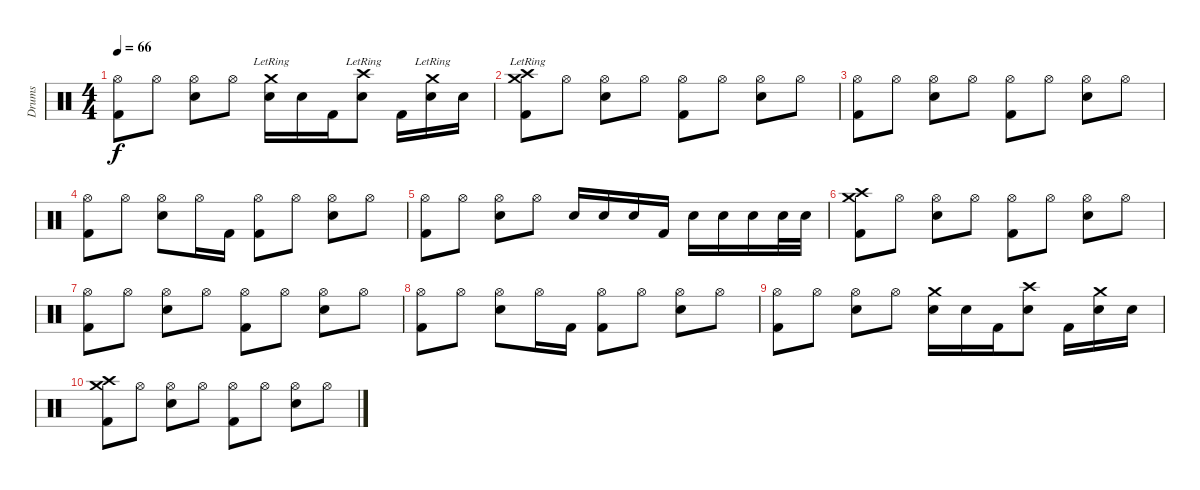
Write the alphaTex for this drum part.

\track ("Drums" "Drums") {instrument percussion}
\staff {score}
\articulation defaults
\ts (4 4)
\tempo 66
\clef neutral
\ks c
("Hi-Hat (open)" "Kick (hit) 2").8{dy f} "Hi-Hat (open)".8 ("Hi-Hat (open)" "Snare (hit) 2").8 "Hi-Hat (open)".8 ("Crash medium (hit)"{lr} "Snare (hit) 2").16 "Snare (hit) 2".16 "Kick (hit) 2".16 ("Crash high (hit)"{lr} "Snare (hit) 2").8 "Kick (hit) 2".16 ("Crash medium (hit)"{lr} "Snare (hit) 2").16 "Snare (hit) 2".16 |
("Crash medium (hit)"{lr} "Crash high (hit)"{lr} "Kick (hit) 2").8 "Hi-Hat (open)".8 ("Hi-Hat (open)" "Snare (hit) 2").8 "Hi-Hat (open)".8 ("Hi-Hat (open)" "Kick (hit) 2").8 "Hi-Hat (open)".8 ("Hi-Hat (open)" "Snare (hit) 2").8 "Hi-Hat (open)".8 |
("Hi-Hat (open)" "Kick (hit) 2").8 "Hi-Hat (open)".8 ("Hi-Hat (open)" "Snare (hit) 2").8 "Hi-Hat (open)".8 ("Hi-Hat (open)" "Kick (hit) 2").8 "Hi-Hat (open)".8 ("Hi-Hat (open)" "Snare (hit) 2").8 "Hi-Hat (open)".8 |
("Hi-Hat (open)" "Kick (hit) 2").8 "Hi-Hat (open)".8 ("Hi-Hat (open)" "Snare (hit) 2").8 "Hi-Hat (open)".16 "Kick (hit) 2".16 ("Hi-Hat (open)" "Kick (hit) 2").8 "Hi-Hat (open)".8 ("Hi-Hat (open)" "Snare (hit) 2").8 "Hi-Hat (open)".8 |
("Hi-Hat (open)" "Kick (hit) 2").8 "Hi-Hat (open)".8 ("Hi-Hat (open)" "Snare (hit) 2").8 "Hi-Hat (open)".8 "Snare (hit) 2".16 "Snare (hit) 2".16 "Snare (hit) 2".16 "Kick (hit) 2".16 "Snare (hit) 2".16 "Snare (hit) 2".16 "Snare (hit) 2".16 "Snare (hit) 2".32 "Snare (hit) 2".32 |
("Crash medium (hit)" "Crash high (hit)" "Kick (hit) 2").8 "Hi-Hat (open)".8 ("Hi-Hat (open)" "Snare (hit) 2").8 "Hi-Hat (open)".8 ("Hi-Hat (open)" "Kick (hit) 2").8 "Hi-Hat (open)".8 ("Hi-Hat (open)" "Snare (hit) 2").8 "Hi-Hat (open)".8 |
("Hi-Hat (open)" "Kick (hit) 2").8{volume 8} "Hi-Hat (open)".8 ("Hi-Hat (open)" "Snare (hit) 2").8 "Hi-Hat (open)".8 ("Hi-Hat (open)" "Kick (hit) 2").8 "Hi-Hat (open)".8 ("Hi-Hat (open)" "Snare (hit) 2").8 "Hi-Hat (open)".8 |
("Hi-Hat (open)" "Kick (hit) 2").8 "Hi-Hat (open)".8 ("Hi-Hat (open)" "Snare (hit) 2").8 "Hi-Hat (open)".16 "Kick (hit) 2".16 ("Hi-Hat (open)" "Kick (hit) 2").8 "Hi-Hat (open)".8 ("Hi-Hat (open)" "Snare (hit) 2").8 "Hi-Hat (open)".8 |
("Hi-Hat (open)" "Kick (hit) 2").8{volume 0} "Hi-Hat (open)".8 ("Hi-Hat (open)" "Snare (hit) 2").8 "Hi-Hat (open)".8 ("Crash medium (hit)" "Snare (hit) 2").16 "Snare (hit) 2".16 "Kick (hit) 2".16 ("Crash high (hit)" "Snare (hit) 2").8 "Kick (hit) 2".16 ("Crash medium (hit)" "Snare (hit) 2").16 "Snare (hit) 2".16 |
("Crash medium (hit)" "Crash high (hit)" "Kick (hit) 2").8 "Hi-Hat (open)".8 ("Hi-Hat (open)" "Snare (hit) 2").8 "Hi-Hat (open)".8 ("Hi-Hat (open)" "Kick (hit) 2").8 "Hi-Hat (open)".8 ("Hi-Hat (open)" "Snare (hit) 2").8 "Hi-Hat (open)".8
